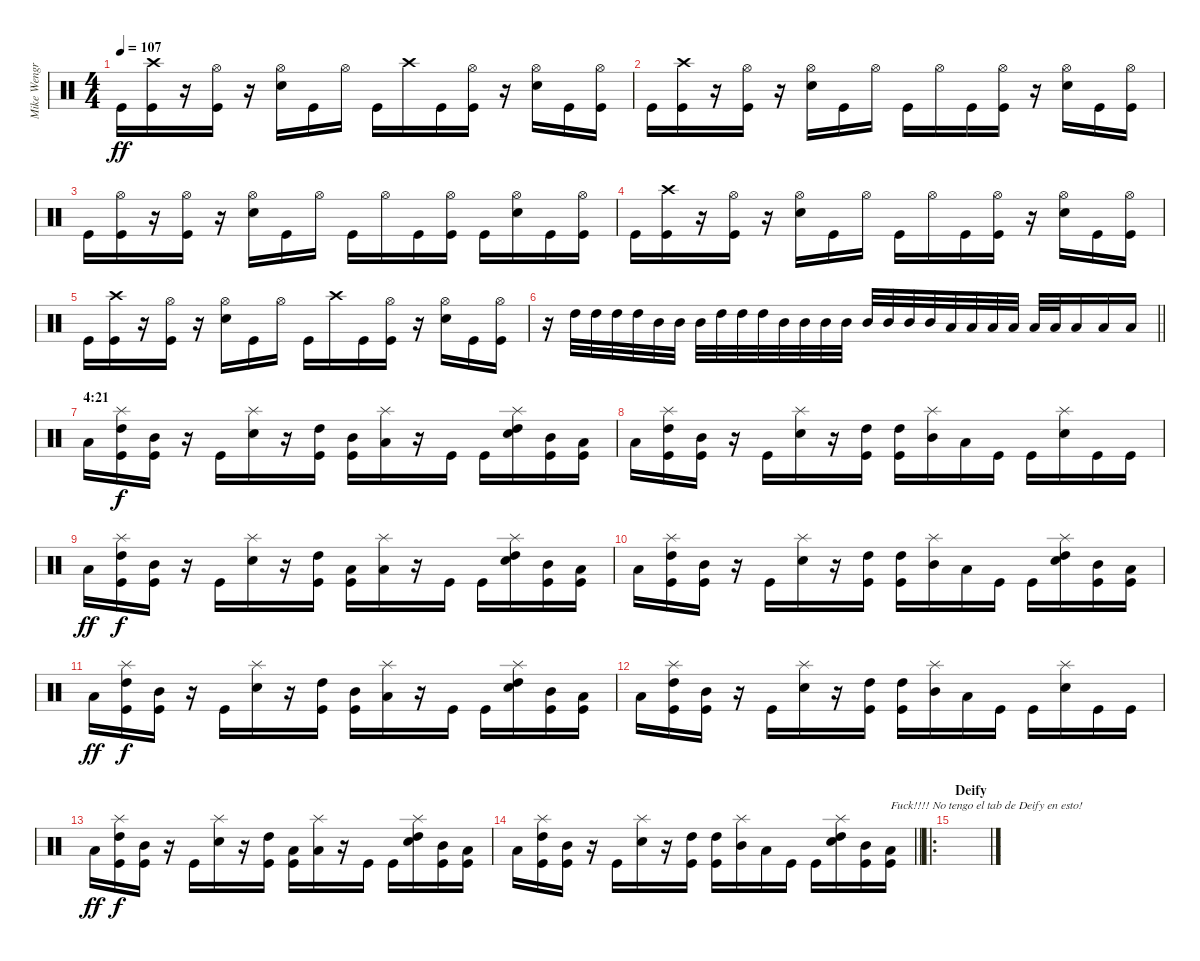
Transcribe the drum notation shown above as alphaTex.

\track ("Mike Wengren" "Mike Wengr") {instrument percussion}
\staff {score}
\articulation defaults
\ts (4 4)
\tempo 107
\clef neutral
\ks c "Kick (hit)".16{dy ff}
("Crash high (hit)" "Kick (hit)").16 r.16 ("Hi-Hat (open)" "Kick (hit)").16 r.16 ("Hi-Hat (open)" "Electric Snare (hit)").16 "Kick (hit)".16 "Hi-Hat (open)".16 "Kick (hit)".16 "Crash high (hit)".16 "Kick (hit)".16 ("Hi-Hat (open)" "Kick (hit)").16 r.16 ("Hi-Hat (open)" "Electric Snare (hit)").16 "Kick (hit)".16 ("Hi-Hat (open)" "Kick (hit)").16 |
"Kick (hit)".16 ("Crash high (hit)" "Kick (hit)").16 r.16 ("Hi-Hat (open)" "Kick (hit)").16 r.16 ("Hi-Hat (open)" "Electric Snare (hit)").16 "Kick (hit)".16 "Hi-Hat (open)".16 "Kick (hit)".16 "Hi-Hat (open)".16 "Kick (hit)".16 ("Hi-Hat (open)" "Kick (hit)").16 r.16 ("Hi-Hat (open)" "Electric Snare (hit)").16 "Kick (hit)".16 ("Hi-Hat (open)" "Kick (hit)").16 |
"Kick (hit)".16 ("Hi-Hat (open)" "Kick (hit)").16 r.16 ("Hi-Hat (open)" "Kick (hit)").16 r.16 ("Hi-Hat (open)" "Electric Snare (hit)").16 "Kick (hit)".16 "Hi-Hat (open)".16 "Kick (hit)".16 "Hi-Hat (open)".16 "Kick (hit)".16 ("Hi-Hat (open)" "Kick (hit)").16 "Kick (hit)".16 ("Hi-Hat (open)" "Electric Snare (hit)").16 "Kick (hit)".16 ("Hi-Hat (open)" "Kick (hit)").16 |
"Kick (hit)".16 ("Crash high (hit)" "Kick (hit)").16 r.16 ("Hi-Hat (open)" "Kick (hit)").16 r.16 ("Hi-Hat (open)" "Electric Snare (hit)").16 "Kick (hit)".16 "Hi-Hat (open)".16 "Kick (hit)".16 "Hi-Hat (open)".16 "Kick (hit)".16 ("Hi-Hat (open)" "Kick (hit)").16 r.16 ("Hi-Hat (open)" "Electric Snare (hit)").16 "Kick (hit)".16 ("Hi-Hat (open)" "Kick (hit)").16 |
"Kick (hit)".16 ("Crash high (hit)" "Kick (hit)").16 r.16 ("Hi-Hat (open)" "Kick (hit)").16 r.16 ("Hi-Hat (open)" "Electric Snare (hit)").16 "Kick (hit)".16 "Hi-Hat (open)".16 "Kick (hit)".16 "Crash high (hit)".16 "Kick (hit)".16 ("Hi-Hat (open)" "Kick (hit)").16 r.16 ("Hi-Hat (open)" "Electric Snare (hit)").16 "Kick (hit)".16 ("Hi-Hat (open)" "Kick (hit)").16 |
\barLineRight lightlight
r.16 "High Tom (hit)".32 "High Tom (hit)".32 "High Tom (hit)".32 "High Tom (hit)".32 "Mid Tom (hit)".32 "Mid Tom (hit)".32 "Mid Tom (hit)".32 "High Tom (hit)".32 "High Tom (hit)".32 "High Tom (hit)".32 "Mid Tom (hit)".32 "Mid Tom (hit)".32 "Mid Tom (hit)".32 "Mid Tom (hit)".32 "Mid Tom (hit)".32 "Mid Tom (hit)".32 "Mid Tom (hit)".32 "Mid Tom (hit)".32 "Low Tom (hit)".32 "Low Tom (hit)".32 "Low Tom (hit)".32 "Low Tom (hit)".32 "Low Tom (hit)".32 "Low Tom (hit)".32 "Low Floor Tom (hit)".16 "Low Floor Tom (hit)".16 "Low Floor Tom (hit)".16 |
\section ("" "4:21")
"Low Floor Tom (hit)".16 ("Splash (hit)" "High Tom (hit)" "Kick (hit)").16{dy f} ("Mid Tom (hit)" "Kick (hit)").16 r.16 "Kick (hit)".16 ("Splash (hit)" "Electric Snare (hit)").16 r.16 ("High Tom (hit)" "Kick (hit)").16 ("Mid Tom (hit)" "Kick (hit)").16 ("Splash (hit)" "Low Tom (hit)").16 r.16 "Kick (hit)".16 "Kick (hit)".16 ("Splash (hit)" "High Tom (hit)" "Electric Snare (hit)").16 ("Mid Tom (hit)" "Kick (hit)").16 ("Low Tom (hit)" "Kick (hit)").16 |
"Low Floor Tom (hit)".16 ("Splash (hit)" "High Tom (hit)" "Kick (hit)").16 ("Mid Tom (hit)" "Kick (hit)").16 r.16 "Kick (hit)".16 ("Splash (hit)" "Electric Snare (hit)").16 r.16 ("High Tom (hit)" "Kick (hit)").16 ("High Tom (hit)" "Kick (hit)").16 ("Splash (hit)" "Mid Tom (hit)").16 "Low Floor Tom (hit)".16 "Kick (hit)".16 "Kick (hit)".16 ("Splash (hit)" "Electric Snare (hit)").16 "Kick (hit)".16 "Kick (hit)".16 |
"Low Floor Tom (hit)".16{dy ff} ("Splash (hit)" "High Tom (hit)" "Kick (hit)").16{dy f} ("Mid Tom (hit)" "Kick (hit)").16 r.16 "Kick (hit)".16 ("Splash (hit)" "Electric Snare (hit)").16 r.16 ("High Tom (hit)" "Kick (hit)").16 ("Low Tom (hit)" "Kick (hit)").16 ("Splash (hit)" "Low Floor Tom (hit)").16 r.16 "Kick (hit)".16 "Kick (hit)".16 ("Splash (hit)" "High Tom (hit)" "Electric Snare (hit)").16 ("Mid Tom (hit)" "Kick (hit)").16 ("Low Tom (hit)" "Kick (hit)").16 |
"Low Floor Tom (hit)".16 ("Splash (hit)" "High Tom (hit)" "Kick (hit)").16 ("Mid Tom (hit)" "Kick (hit)").16 r.16 "Kick (hit)".16 ("Splash (hit)" "Electric Snare (hit)").16 r.16 ("High Tom (hit)" "Kick (hit)").16 ("High Tom (hit)" "Kick (hit)").16 ("Splash (hit)" "Mid Tom (hit)").16 "Low Floor Tom (hit)".16 "Kick (hit)".16 "Kick (hit)".16 ("Splash (hit)" "High Tom (hit)" "Electric Snare (hit)").16 ("Mid Tom (hit)" "Kick (hit)").16 ("Low Tom (hit)" "Kick (hit)").16 |
"Low Floor Tom (hit)".16{dy ff} ("Splash (hit)" "High Tom (hit)" "Kick (hit)").16{dy f} ("Mid Tom (hit)" "Kick (hit)").16 r.16 "Kick (hit)".16 ("Splash (hit)" "Electric Snare (hit)").16 r.16 ("High Tom (hit)" "Kick (hit)").16 ("Mid Tom (hit)" "Kick (hit)").16 ("Splash (hit)" "Low Tom (hit)").16 r.16 "Kick (hit)".16 "Kick (hit)".16 ("Splash (hit)" "High Tom (hit)" "Electric Snare (hit)").16 ("Mid Tom (hit)" "Kick (hit)").16 ("Low Tom (hit)" "Kick (hit)").16 |
"Low Floor Tom (hit)".16 ("Splash (hit)" "High Tom (hit)" "Kick (hit)").16 ("Mid Tom (hit)" "Kick (hit)").16 r.16 "Kick (hit)".16 ("Splash (hit)" "Electric Snare (hit)").16 r.16 ("High Tom (hit)" "Kick (hit)").16 ("High Tom (hit)" "Kick (hit)").16 ("Splash (hit)" "Mid Tom (hit)").16 "Low Floor Tom (hit)".16 "Kick (hit)".16 "Kick (hit)".16 ("Splash (hit)" "Electric Snare (hit)").16 "Kick (hit)".16 "Kick (hit)".16 |
"Low Floor Tom (hit)".16{dy ff} ("Splash (hit)" "High Tom (hit)" "Kick (hit)").16{dy f} ("Mid Tom (hit)" "Kick (hit)").16 r.16 "Kick (hit)".16 ("Splash (hit)" "Electric Snare (hit)").16 r.16 ("High Tom (hit)" "Kick (hit)").16 ("Low Tom (hit)" "Kick (hit)").16 ("Splash (hit)" "Low Floor Tom (hit)").16 r.16 "Kick (hit)".16 "Kick (hit)".16 ("Splash (hit)" "High Tom (hit)" "Electric Snare (hit)").16 ("Mid Tom (hit)" "Kick (hit)").16 ("Low Tom (hit)" "Kick (hit)").16 |
\barLineRight lightlight "Low Floor Tom (hit)".16
("Splash (hit)" "High Tom (hit)" "Kick (hit)").16 ("Mid Tom (hit)" "Kick (hit)").16 r.16 "Kick (hit)".16 ("Splash (hit)" "Electric Snare (hit)").16 r.16 ("High Tom (hit)" "Kick (hit)").16 ("High Tom (hit)" "Kick (hit)").16 ("Splash (hit)" "Mid Tom (hit)").16 "Low Floor Tom (hit)".16 "Kick (hit)".16 "Kick (hit)".16 ("Splash (hit)" "High Tom (hit)" "Electric Snare (hit)").16 ("Mid Tom (hit)" "Kick (hit)").16 ("Low Tom (hit)" "Kick (hit)").16{txt "Fuck!!!! No tengo el tab de Deify en esto!"} |
\ro
\section ("" "Deify")
